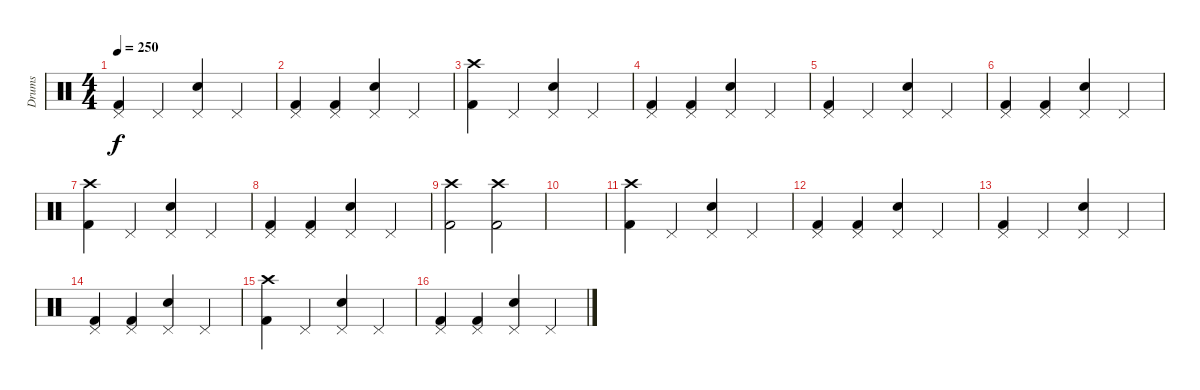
\track ("Drums" "Drums") {instrument percussion}
\staff {score}
\articulation defaults
\ts (4 4)
\tempo 250
\clef neutral
\ks c
("Pedal Hi-Hat (hit)" "Kick (hit) 2").4{dy f} "Pedal Hi-Hat (hit)".4 ("Pedal Hi-Hat (hit)" "Electric Snare (hit)").4 "Pedal Hi-Hat (hit)".4 |
("Pedal Hi-Hat (hit)" "Kick (hit) 2").4 ("Pedal Hi-Hat (hit)" "Kick (hit) 2").4 ("Pedal Hi-Hat (hit)" "Electric Snare (hit)").4 "Pedal Hi-Hat (hit)".4 |
("Kick (hit) 2" "Crash high (hit)").4 "Pedal Hi-Hat (hit)".4 ("Pedal Hi-Hat (hit)" "Electric Snare (hit)").4 "Pedal Hi-Hat (hit)".4 |
("Pedal Hi-Hat (hit)" "Kick (hit) 2").4 ("Pedal Hi-Hat (hit)" "Kick (hit) 2").4 ("Pedal Hi-Hat (hit)" "Electric Snare (hit)").4 "Pedal Hi-Hat (hit)".4 |
("Pedal Hi-Hat (hit)" "Kick (hit) 2").4 "Pedal Hi-Hat (hit)".4 ("Pedal Hi-Hat (hit)" "Electric Snare (hit)").4 "Pedal Hi-Hat (hit)".4 |
("Pedal Hi-Hat (hit)" "Kick (hit) 2").4 ("Pedal Hi-Hat (hit)" "Kick (hit) 2").4 ("Pedal Hi-Hat (hit)" "Electric Snare (hit)").4 "Pedal Hi-Hat (hit)".4 |
("Kick (hit) 2" "Crash high (hit)").4 "Pedal Hi-Hat (hit)".4 ("Pedal Hi-Hat (hit)" "Electric Snare (hit)").4 "Pedal Hi-Hat (hit)".4 |
("Pedal Hi-Hat (hit)" "Kick (hit) 2").4 ("Pedal Hi-Hat (hit)" "Kick (hit) 2").4 ("Pedal Hi-Hat (hit)" "Electric Snare (hit)").4 "Pedal Hi-Hat (hit)".4 |
("Crash high (hit)" "Kick (hit) 2").2 ("Crash high (hit)" "Kick (hit) 2").2 |
|
("Kick (hit) 2" "Crash high (hit)").4 "Pedal Hi-Hat (hit)".4 ("Pedal Hi-Hat (hit)" "Electric Snare (hit)").4 "Pedal Hi-Hat (hit)".4 |
("Pedal Hi-Hat (hit)" "Kick (hit) 2").4 ("Pedal Hi-Hat (hit)" "Kick (hit) 2").4 ("Pedal Hi-Hat (hit)" "Electric Snare (hit)").4 "Pedal Hi-Hat (hit)".4 |
("Pedal Hi-Hat (hit)" "Kick (hit) 2").4 "Pedal Hi-Hat (hit)".4 ("Pedal Hi-Hat (hit)" "Electric Snare (hit)").4 "Pedal Hi-Hat (hit)".4 |
("Pedal Hi-Hat (hit)" "Kick (hit) 2").4 ("Pedal Hi-Hat (hit)" "Kick (hit) 2").4 ("Pedal Hi-Hat (hit)" "Electric Snare (hit)").4 "Pedal Hi-Hat (hit)".4 |
("Kick (hit) 2" "Crash high (hit)").4 "Pedal Hi-Hat (hit)".4 ("Pedal Hi-Hat (hit)" "Electric Snare (hit)").4 "Pedal Hi-Hat (hit)".4 |
("Pedal Hi-Hat (hit)" "Kick (hit) 2").4 ("Pedal Hi-Hat (hit)" "Kick (hit) 2").4 ("Pedal Hi-Hat (hit)" "Electric Snare (hit)").4 "Pedal Hi-Hat (hit)".4
